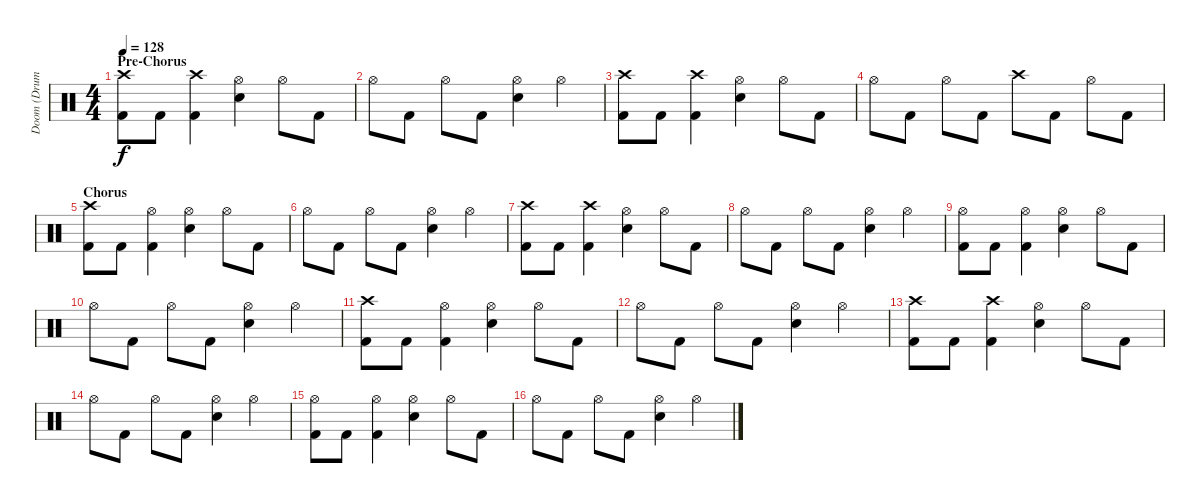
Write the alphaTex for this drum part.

\track ("Doom (Drums)" "Doom (Drum") {instrument percussion}
\staff {score}
\articulation defaults
\ts (4 4)
\section ("" "Pre-Chorus")
\tempo 128
\clef neutral
\ks c
("Crash high (hit)" "Kick (hit) 2").8{dy f} "Kick (hit) 2".8 ("Crash high (hit)" "Kick (hit) 2").4 ("Hi-Hat (open)" "Electric Snare (hit)").4 "Hi-Hat (open)".8 "Kick (hit) 2".8 |
"Hi-Hat (open)".8 "Kick (hit) 2".8 "Hi-Hat (open)".8 "Kick (hit) 2".8 ("Hi-Hat (open)" "Electric Snare (hit)").4 "Hi-Hat (open)".4 |
("Crash high (hit)" "Kick (hit) 2").8 "Kick (hit) 2".8 ("Crash high (hit)" "Kick (hit) 2").4 ("Hi-Hat (open)" "Electric Snare (hit)").4 "Hi-Hat (open)".8 "Kick (hit) 2".8 |
"Hi-Hat (open)".8 "Kick (hit) 2".8 "Hi-Hat (open)".8 "Kick (hit) 2".8 "Crash high (hit)".8 "Kick (hit) 2".8 "Hi-Hat (open)".8 "Kick (hit) 2".8 |
\section ("" "Chorus")
("Crash high (hit)" "Kick (hit) 2").8 "Kick (hit) 2".8 ("Hi-Hat (open)" "Kick (hit) 2").4 ("Hi-Hat (open)" "Electric Snare (hit)").4 "Hi-Hat (open)".8 "Kick (hit) 2".8 |
"Hi-Hat (open)".8 "Kick (hit) 2".8 "Hi-Hat (open)".8 "Kick (hit) 2".8 ("Hi-Hat (open)" "Electric Snare (hit)").4 "Hi-Hat (open)".4 |
("Crash high (hit)" "Kick (hit) 2").8 "Kick (hit) 2".8 ("Crash high (hit)" "Kick (hit) 2").4 ("Hi-Hat (open)" "Electric Snare (hit)").4 "Hi-Hat (open)".8 "Kick (hit) 2".8 |
"Hi-Hat (open)".8 "Kick (hit) 2".8 "Hi-Hat (open)".8 "Kick (hit) 2".8 ("Hi-Hat (open)" "Electric Snare (hit)").4 "Hi-Hat (open)".4 |
("Hi-Hat (open)" "Kick (hit) 2").8 "Kick (hit) 2".8 ("Hi-Hat (open)" "Kick (hit) 2").4 ("Hi-Hat (open)" "Electric Snare (hit)").4 "Hi-Hat (open)".8 "Kick (hit) 2".8 |
"Hi-Hat (open)".8 "Kick (hit) 2".8 "Hi-Hat (open)".8 "Kick (hit) 2".8 ("Hi-Hat (open)" "Electric Snare (hit)").4 "Hi-Hat (open)".4 |
("Crash high (hit)" "Kick (hit) 2").8 "Kick (hit) 2".8 ("Hi-Hat (open)" "Kick (hit) 2").4 ("Hi-Hat (open)" "Electric Snare (hit)").4 "Hi-Hat (open)".8 "Kick (hit) 2".8 |
"Hi-Hat (open)".8 "Kick (hit) 2".8 "Hi-Hat (open)".8 "Kick (hit) 2".8 ("Hi-Hat (open)" "Electric Snare (hit)").4 "Hi-Hat (open)".4 |
("Crash high (hit)" "Kick (hit) 2").8 "Kick (hit) 2".8 ("Crash high (hit)" "Kick (hit) 2").4 ("Hi-Hat (open)" "Electric Snare (hit)").4 "Hi-Hat (open)".8 "Kick (hit) 2".8 |
"Hi-Hat (open)".8 "Kick (hit) 2".8 "Hi-Hat (open)".8 "Kick (hit) 2".8 ("Hi-Hat (open)" "Electric Snare (hit)").4 "Hi-Hat (open)".4 |
("Hi-Hat (open)" "Kick (hit) 2").8 "Kick (hit) 2".8 ("Hi-Hat (open)" "Kick (hit) 2").4 ("Hi-Hat (open)" "Electric Snare (hit)").4 "Hi-Hat (open)".8 "Kick (hit) 2".8 |
"Hi-Hat (open)".8 "Kick (hit) 2".8 "Hi-Hat (open)".8 "Kick (hit) 2".8 ("Hi-Hat (open)" "Electric Snare (hit)").4 "Hi-Hat (open)".4
